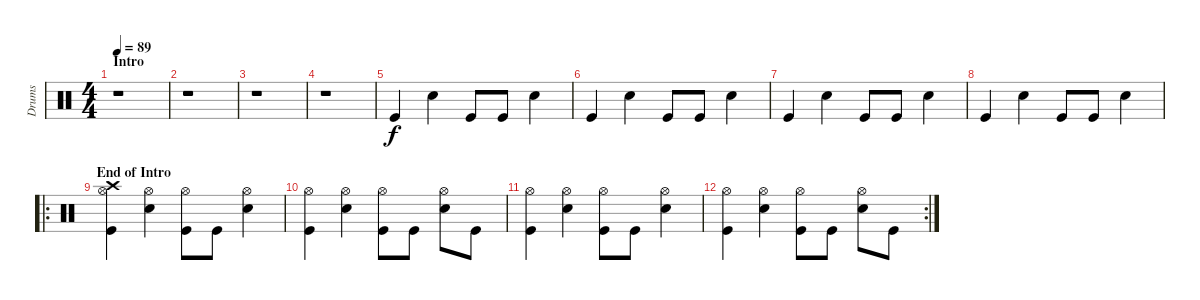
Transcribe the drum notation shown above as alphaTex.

\track ("Drums" "Drums") {instrument percussion}
\staff {score}
\articulation defaults
\ts (4 4)
\section ("" "Intro")
\tempo 89
\clef neutral
\ks c
r.1{dy f} |
r.1 |
r.1 |
r.1 |
"Kick (hit)".4 "Electric Snare (hit)".4 "Kick (hit)".8 "Kick (hit)".8 "Electric Snare (hit)".4 |
"Kick (hit)".4 "Electric Snare (hit)".4 "Kick (hit)".8 "Kick (hit)".8 "Electric Snare (hit)".4 |
"Kick (hit)".4 "Electric Snare (hit)".4 "Kick (hit)".8 "Kick (hit)".8 "Electric Snare (hit)".4 |
"Kick (hit)".4 "Electric Snare (hit)".4 "Kick (hit)".8 "Kick (hit)".8 "Electric Snare (hit)".4 |
\ro
\section ("" "End of Intro")
("Crash high (hit)" "Hi-Hat (open)" "Kick (hit)").4 ("Hi-Hat (open)" "Electric Snare (hit)").4 ("Hi-Hat (open)" "Kick (hit)").8 "Kick (hit)".8 ("Hi-Hat (open)" "Electric Snare (hit)").4 |
("Hi-Hat (open)" "Kick (hit)").4 ("Hi-Hat (open)" "Electric Snare (hit)").4 ("Hi-Hat (open)" "Kick (hit)").8 "Kick (hit)".8 ("Hi-Hat (open)" "Electric Snare (hit)").8 "Kick (hit)".8 |
("Hi-Hat (open)" "Kick (hit)").4 ("Hi-Hat (open)" "Electric Snare (hit)").4 ("Hi-Hat (open)" "Kick (hit)").8 "Kick (hit)".8 ("Hi-Hat (open)" "Electric Snare (hit)").4 |
\rc 2
("Hi-Hat (open)" "Kick (hit)").4 ("Hi-Hat (open)" "Electric Snare (hit)").4 ("Hi-Hat (open)" "Kick (hit)").8 "Kick (hit)".8 ("Hi-Hat (open)" "Electric Snare (hit)").8 "Kick (hit)".8
